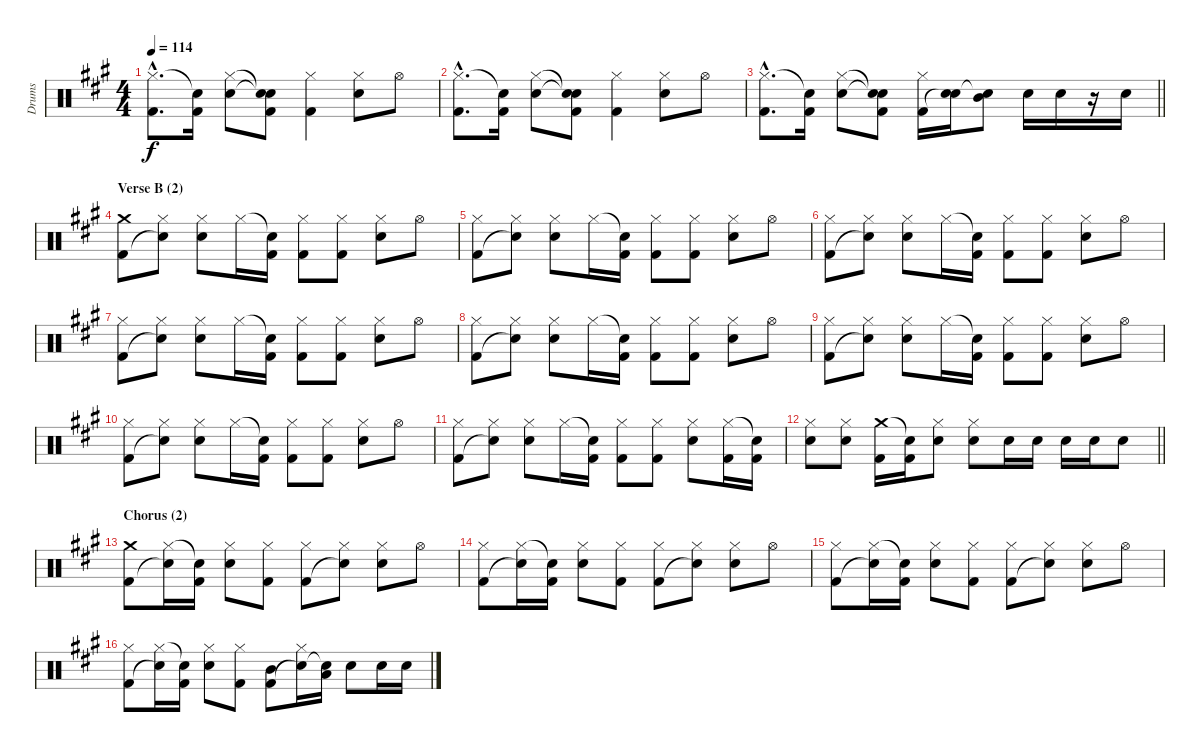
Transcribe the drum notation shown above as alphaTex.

\track ("Drums" "Drums") {instrument percussion}
\staff {score}
\articulation defaults
\ts (4 4)
\tempo 114
\clef neutral
\ks a
("Hi-Hat (closed)"{hac} "Kick (hit) 2"{hac}).8{d dy f} ("Snare (hit)"{t} "Kick (hit) 2").16 ("Hi-Hat (closed)" "Electric Snare (hit)").8 ("Snare (hit)"{t} "Snare (hit)"{t} "Kick (hit) 2").8 ("Hi-Hat (closed)" "Kick (hit) 2").4 ("Hi-Hat (closed)" "Electric Snare (hit)").8 "Hi-Hat (open)".8 |
("Hi-Hat (closed)"{hac} "Kick (hit) 2"{hac}).8{d} ("Snare (hit)"{t} "Kick (hit) 2").16 ("Hi-Hat (closed)" "Electric Snare (hit)").8 ("Snare (hit)"{t} "Snare (hit)"{t} "Kick (hit) 2").8 ("Hi-Hat (closed)" "Kick (hit) 2").4 ("Hi-Hat (closed)" "Electric Snare (hit)").8 "Hi-Hat (open)".8 |
\barLineRight lightlight
("Hi-Hat (closed)"{hac} "Kick (hit) 2"{hac}).8{d} ("Snare (hit)"{t} "Kick (hit) 2").16 ("Hi-Hat (closed)" "Electric Snare (hit)").8 ("Snare (hit)"{t} "Snare (hit)"{t} "Kick (hit) 2").8 ("Hi-Hat (closed)" "Kick (hit) 2").16 ("Electric Snare (hit)" "Snare (hit)"{t}).16 ("Mid Tom (hit)" "Snare (hit)"{t}).8 "Electric Snare (hit)".16 "Electric Snare (hit)".16 r.16 "Electric Snare (hit)".16 |
\section ("" "Verse B (2)")
("Crash medium (hit)" "Kick (hit) 2").8 ("Hi-Hat (closed)" "Snare (hit)"{t}).8 ("Hi-Hat (closed)" "Electric Snare (hit)").8 "Hi-Hat (closed)".16 ("Snare (hit)"{t} "Kick (hit) 2").16 ("Hi-Hat (closed)" "Kick (hit) 2").8 ("Hi-Hat (closed)" "Kick (hit) 2").8 ("Hi-Hat (closed)" "Electric Snare (hit)").8 "Hi-Hat (open)".8 |
("Hi-Hat (closed)" "Kick (hit) 2").8 ("Hi-Hat (closed)" "Snare (hit)"{t}).8 ("Hi-Hat (closed)" "Electric Snare (hit)").8 "Hi-Hat (closed)".16 ("Snare (hit)"{t} "Kick (hit) 2").16 ("Hi-Hat (closed)" "Kick (hit) 2").8 ("Hi-Hat (closed)" "Kick (hit) 2").8 ("Hi-Hat (closed)" "Electric Snare (hit)").8 "Hi-Hat (open)".8 |
("Hi-Hat (closed)" "Kick (hit) 2").8 ("Hi-Hat (closed)" "Snare (hit)"{t}).8 ("Hi-Hat (closed)" "Electric Snare (hit)").8 "Hi-Hat (closed)".16 ("Snare (hit)"{t} "Kick (hit) 2").16 ("Hi-Hat (closed)" "Kick (hit) 2").8 ("Hi-Hat (closed)" "Kick (hit) 2").8 ("Hi-Hat (closed)" "Electric Snare (hit)").8 "Hi-Hat (open)".8 |
("Hi-Hat (closed)" "Kick (hit) 2").8 ("Hi-Hat (closed)" "Snare (hit)"{t}).8 ("Hi-Hat (closed)" "Electric Snare (hit)").8 "Hi-Hat (closed)".16 ("Snare (hit)"{t} "Kick (hit) 2").16 ("Hi-Hat (closed)" "Kick (hit) 2").8 ("Hi-Hat (closed)" "Kick (hit) 2").8 ("Hi-Hat (closed)" "Electric Snare (hit)").8 "Hi-Hat (open)".8 |
("Hi-Hat (closed)" "Kick (hit) 2").8 ("Hi-Hat (closed)" "Snare (hit)"{t}).8 ("Hi-Hat (closed)" "Electric Snare (hit)").8 "Hi-Hat (closed)".16 ("Snare (hit)"{t} "Kick (hit) 2").16 ("Hi-Hat (closed)" "Kick (hit) 2").8 ("Hi-Hat (closed)" "Kick (hit) 2").8 ("Hi-Hat (closed)" "Electric Snare (hit)").8 "Hi-Hat (open)".8 |
("Hi-Hat (closed)" "Kick (hit) 2").8 ("Hi-Hat (closed)" "Snare (hit)"{t}).8 ("Hi-Hat (closed)" "Electric Snare (hit)").8 "Hi-Hat (closed)".16 ("Snare (hit)"{t} "Kick (hit) 2").16 ("Hi-Hat (closed)" "Kick (hit) 2").8 ("Hi-Hat (closed)" "Kick (hit) 2").8 ("Hi-Hat (closed)" "Electric Snare (hit)").8 "Hi-Hat (open)".8 |
("Hi-Hat (closed)" "Kick (hit) 2").8 ("Hi-Hat (closed)" "Snare (hit)"{t}).8 ("Hi-Hat (closed)" "Electric Snare (hit)").8 "Hi-Hat (closed)".16 ("Snare (hit)"{t} "Kick (hit) 2").16 ("Hi-Hat (closed)" "Kick (hit) 2").8 ("Hi-Hat (closed)" "Kick (hit) 2").8 ("Hi-Hat (closed)" "Electric Snare (hit)").8 "Hi-Hat (open)".8 |
("Hi-Hat (closed)" "Kick (hit) 2").8 ("Hi-Hat (closed)" "Snare (hit)"{t}).8 ("Hi-Hat (closed)" "Electric Snare (hit)").8 "Hi-Hat (closed)".16 ("Snare (hit)"{t} "Kick (hit) 2").16 ("Hi-Hat (closed)" "Kick (hit) 2").8 ("Hi-Hat (closed)" "Kick (hit) 2").8 ("Hi-Hat (closed)" "Electric Snare (hit)").8 ("Hi-Hat (closed)" "Kick (hit) 2").16 ("Snare (hit)"{t} "Kick (hit) 2").16 |
\barLineRight lightlight
("Hi-Hat (closed)" "Electric Snare (hit)").8 ("Hi-Hat (closed)" "Electric Snare (hit)").8 ("Crash medium (hit)" "Kick (hit) 2").16 ("Snare (hit)"{t} "Kick (hit) 2").16 ("Hi-Hat (closed)" "Electric Snare (hit)").8 ("Hi-Hat (closed)" "Electric Snare (hit)").8 "Electric Snare (hit)".16 "Electric Snare (hit)".16 "Electric Snare (hit)".16 "Electric Snare (hit)".16 "Electric Snare (hit)".8 |
\section ("" "Chorus (2)")
("Crash medium (hit)" "Kick (hit) 2").8 ("Hi-Hat (closed)" "Snare (hit)"{t}).16 ("Snare (hit)"{t} "Kick (hit) 2").16 ("Hi-Hat (closed)" "Electric Snare (hit)").8 ("Hi-Hat (closed)" "Kick (hit) 2").8 ("Hi-Hat (closed)" "Kick (hit) 2").8 ("Hi-Hat (closed)" "Snare (hit)"{t}).8 ("Hi-Hat (closed)" "Electric Snare (hit)").8 "Hi-Hat (open)".8 |
("Hi-Hat (closed)" "Kick (hit) 2").8 ("Hi-Hat (closed)" "Snare (hit)"{t}).16 ("Snare (hit)"{t} "Kick (hit) 2").16 ("Hi-Hat (closed)" "Electric Snare (hit)").8 ("Hi-Hat (closed)" "Kick (hit) 2").8 ("Hi-Hat (closed)" "Kick (hit) 2").8 ("Hi-Hat (closed)" "Snare (hit)"{t}).8 ("Hi-Hat (closed)" "Electric Snare (hit)").8 "Hi-Hat (open)".8 |
("Hi-Hat (closed)" "Kick (hit) 2").8 ("Hi-Hat (closed)" "Snare (hit)"{t}).16 ("Snare (hit)"{t} "Kick (hit) 2").16 ("Hi-Hat (closed)" "Electric Snare (hit)").8 ("Hi-Hat (closed)" "Kick (hit) 2").8 ("Hi-Hat (closed)" "Kick (hit) 2").8 ("Hi-Hat (closed)" "Snare (hit)"{t}).8 ("Hi-Hat (closed)" "Electric Snare (hit)").8 "Hi-Hat (open)".8 |
("Hi-Hat (closed)" "Kick (hit) 2").8 ("Hi-Hat (closed)" "Snare (hit)"{t}).16 ("Snare (hit)"{t} "Kick (hit) 2").16 ("Hi-Hat (closed)" "Electric Snare (hit)").8 ("Hi-Hat (closed)" "Kick (hit) 2").8 ("Mid Tom (hit)" "Kick (hit) 2").8 ("Hi-Hat (closed)" "Snare (hit)"{t}).16 ("Low Tom (hit)" "Snare (hit)"{t}).16 "Electric Snare (hit)".8 "Electric Snare (hit)".16 "Electric Snare (hit)".16
